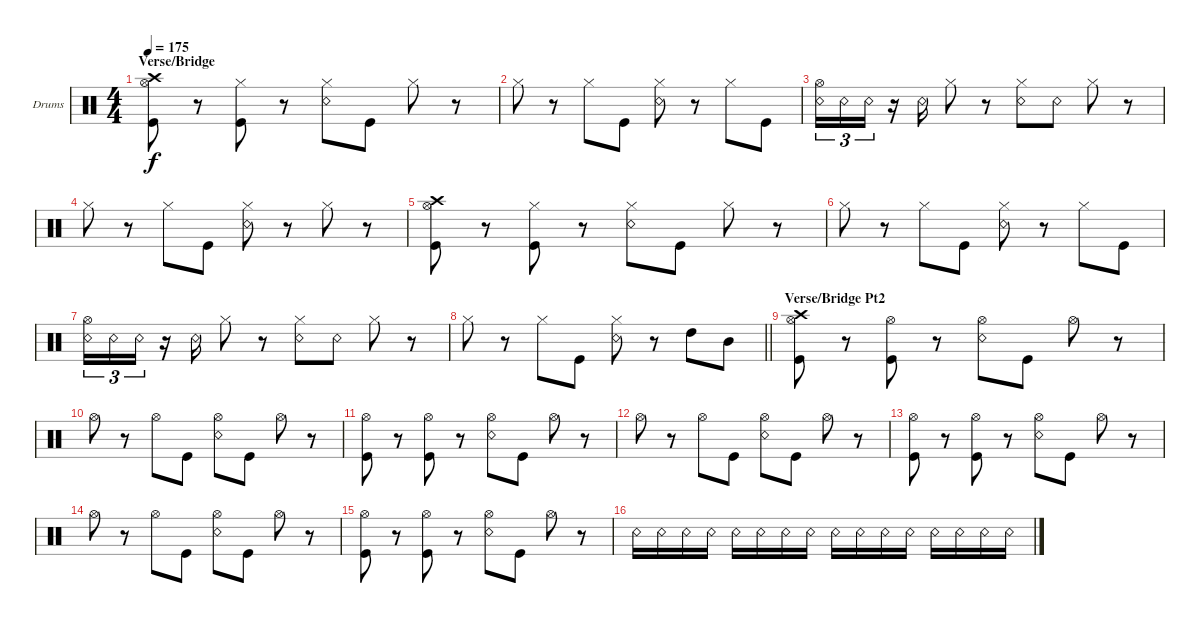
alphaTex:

\bracketExtendMode groupsimilarinstruments
\firstSystemTrackNameOrientation horizontal
\otherSystemsTrackNameOrientation horizontal
\track ("Kanky Lora" "Drums") {instrument percussion}
\staff {score}
\articulation defaults
\ts (4 4)
\section ("" "Verse/Bridge")
\tempo 175
\clef neutral
\ks c
("Hi-Hat (open)" "Kick (hit)" "Crash high (hit)").8{dy f} r.8 ("Hi-Hat (closed)" "Kick (hit)").8 r.8 ("Hi-Hat (closed)" "Snare (rim shot)").8 "Kick (hit)".8 "Hi-Hat (closed)".8 r.8 |
"Hi-Hat (closed)".8 r.8 "Hi-Hat (closed)".8 "Kick (hit)".8 ("Hi-Hat (closed)" "Snare (rim shot)").8 r.8 "Hi-Hat (closed)".8 "Kick (hit)".8 |
("Snare (rim shot)" "Hi-Hat (open)").16{tu (3 2)} "Snare (rim shot)".16{tu (3 2)} "Snare (rim shot)".16{tu (3 2)} r.16 "Snare (rim shot)".16 "Hi-Hat (closed)".8 r.8 ("Snare (rim shot)" "Hi-Hat (closed)").8 "Snare (rim shot)".8 "Hi-Hat (closed)".8 r.8 |
"Hi-Hat (closed)".8 r.8 "Hi-Hat (closed)".8 "Kick (hit)".8 ("Hi-Hat (closed)" "Snare (rim shot)").8 r.8 "Hi-Hat (closed)".8 r.8 |
("Hi-Hat (open)" "Kick (hit)" "Crash high (hit)").8 r.8 ("Hi-Hat (closed)" "Kick (hit)").8 r.8 ("Hi-Hat (closed)" "Snare (rim shot)").8 "Kick (hit)".8 "Hi-Hat (closed)".8 r.8 |
"Hi-Hat (closed)".8 r.8 "Hi-Hat (closed)".8 "Kick (hit)".8 ("Hi-Hat (closed)" "Snare (rim shot)").8 r.8 "Hi-Hat (closed)".8 "Kick (hit)".8 |
("Snare (rim shot)" "Hi-Hat (open)").16{tu (3 2)} "Snare (rim shot)".16{tu (3 2)} "Snare (rim shot)".16{tu (3 2)} r.16 "Snare (rim shot)".16 "Hi-Hat (closed)".8 r.8 ("Snare (rim shot)" "Hi-Hat (closed)").8 "Snare (rim shot)".8 "Hi-Hat (closed)".8 r.8 |
\barLineRight lightlight "Hi-Hat (closed)".8
r.8 "Hi-Hat (closed)".8 "Kick (hit)".8 ("Hi-Hat (closed)" "Snare (rim shot)").8 r.8 "High Tom (hit)".8 "Mid Tom (hit)".8 |
\section ("" "Verse/Bridge Pt2")
("Hi-Hat (open)" "Kick (hit)" "Crash high (hit)").8 r.8 ("Hi-Hat (open)" "Kick (hit)").8 r.8 ("Hi-Hat (open)" "Snare (rim shot)").8 "Kick (hit)".8 "Hi-Hat (open)".8 r.8 |
"Hi-Hat (open)".8 r.8 "Hi-Hat (open)".8 "Kick (hit)".8 ("Hi-Hat (open)" "Snare (rim shot)").8 "Kick (hit)".8 "Hi-Hat (open)".8 r.8 |
("Hi-Hat (open)" "Kick (hit)").8 r.8 ("Hi-Hat (open)" "Kick (hit)").8 r.8 ("Hi-Hat (open)" "Snare (rim shot)").8 "Kick (hit)".8 "Hi-Hat (open)".8 r.8 |
"Hi-Hat (open)".8 r.8 "Hi-Hat (open)".8 "Kick (hit)".8 ("Hi-Hat (open)" "Snare (rim shot)").8 "Kick (hit)".8 "Hi-Hat (open)".8 r.8 |
("Hi-Hat (open)" "Kick (hit)").8 r.8 ("Hi-Hat (open)" "Kick (hit)").8 r.8 ("Hi-Hat (open)" "Snare (rim shot)").8 "Kick (hit)".8 "Hi-Hat (open)".8 r.8 |
"Hi-Hat (open)".8 r.8 "Hi-Hat (open)".8 "Kick (hit)".8 ("Hi-Hat (open)" "Snare (rim shot)").8 "Kick (hit)".8 "Hi-Hat (open)".8 r.8 |
("Hi-Hat (open)" "Kick (hit)").8 r.8 ("Hi-Hat (open)" "Kick (hit)").8 r.8 ("Hi-Hat (open)" "Snare (rim shot)").8 "Kick (hit)".8 "Hi-Hat (open)".8 r.8 |
"Snare (rim shot)".16 "Snare (rim shot)".16 "Snare (rim shot)".16 "Snare (rim shot)".16 "Snare (rim shot)".16 "Snare (rim shot)".16 "Snare (rim shot)".16 "Snare (rim shot)".16 "Snare (rim shot)".16 "Snare (rim shot)".16 "Snare (rim shot)".16 "Snare (rim shot)".16 "Snare (rim shot)".16 "Snare (rim shot)".16 "Snare (rim shot)".16 "Snare (rim shot)".16
